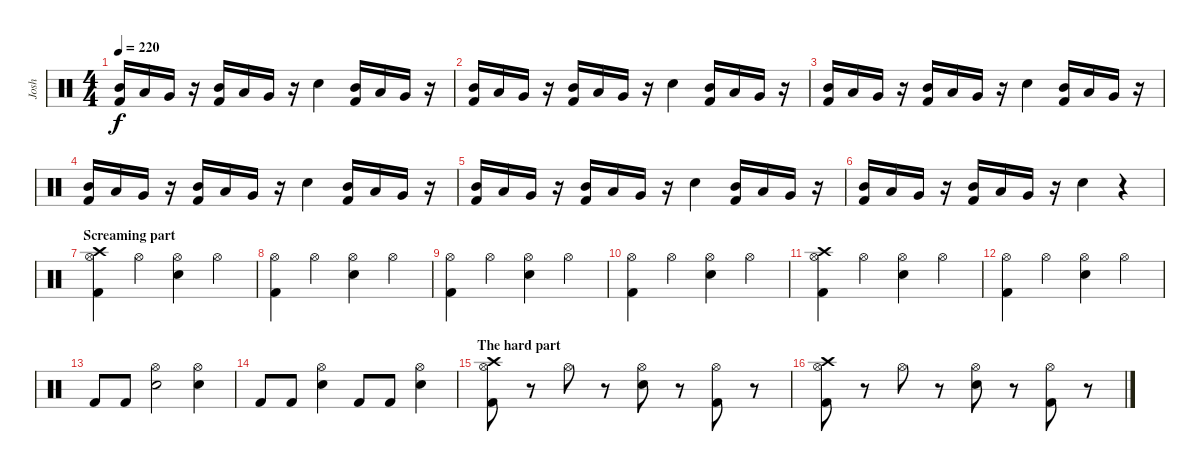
\track ("Josh" "Josh") {instrument percussion}
\staff {score}
\articulation defaults
\ts (4 4)
\tempo 220
\clef neutral
\ks c
("Mid Tom (hit)" "Kick (hit) 2").16{dy f} "Low Tom (hit)".16 "Very Low Tom (hit)".16 r.16 ("Mid Tom (hit)" "Kick (hit) 2").16 "Low Tom (hit)".16 "Very Low Tom (hit)".16 r.16 "Snare (hit) 2".4 ("Mid Tom (hit)" "Kick (hit) 2").16 "Low Tom (hit)".16 "Very Low Tom (hit)".16 r.16 |
("Mid Tom (hit)" "Kick (hit) 2").16 "Low Tom (hit)".16 "Very Low Tom (hit)".16 r.16 ("Mid Tom (hit)" "Kick (hit) 2").16 "Low Tom (hit)".16 "Very Low Tom (hit)".16 r.16 "Snare (hit) 2".4 ("Mid Tom (hit)" "Kick (hit) 2").16 "Low Tom (hit)".16 "Very Low Tom (hit)".16 r.16 |
("Mid Tom (hit)" "Kick (hit) 2").16 "Low Tom (hit)".16 "Very Low Tom (hit)".16 r.16 ("Mid Tom (hit)" "Kick (hit) 2").16 "Low Tom (hit)".16 "Very Low Tom (hit)".16 r.16 "Snare (hit) 2".4 ("Mid Tom (hit)" "Kick (hit) 2").16 "Low Tom (hit)".16 "Very Low Tom (hit)".16 r.16 |
("Mid Tom (hit)" "Kick (hit) 2").16 "Low Tom (hit)".16 "Very Low Tom (hit)".16 r.16 ("Mid Tom (hit)" "Kick (hit) 2").16 "Low Tom (hit)".16 "Very Low Tom (hit)".16 r.16 "Snare (hit) 2".4 ("Mid Tom (hit)" "Kick (hit) 2").16 "Low Tom (hit)".16 "Very Low Tom (hit)".16 r.16 |
("Mid Tom (hit)" "Kick (hit) 2").16 "Low Tom (hit)".16 "Very Low Tom (hit)".16 r.16 ("Mid Tom (hit)" "Kick (hit) 2").16 "Low Tom (hit)".16 "Very Low Tom (hit)".16 r.16 "Snare (hit) 2".4 ("Mid Tom (hit)" "Kick (hit) 2").16 "Low Tom (hit)".16 "Very Low Tom (hit)".16 r.16 |
("Mid Tom (hit)" "Kick (hit) 2").16 "Low Tom (hit)".16 "Very Low Tom (hit)".16 r.16 ("Mid Tom (hit)" "Kick (hit) 2").16 "Low Tom (hit)".16 "Very Low Tom (hit)".16 r.16 "Snare (hit) 2".4 r.4 |
\section ("" "Screaming part")
("Crash high (hit)" "Hi-Hat (open)" "Kick (hit) 2").4 "Hi-Hat (open)".4 ("Hi-Hat (open)" "Snare (hit) 2").4 "Hi-Hat (open)".4 |
("Hi-Hat (open)" "Kick (hit) 2").4 "Hi-Hat (open)".4 ("Hi-Hat (open)" "Snare (hit) 2").4 "Hi-Hat (open)".4 |
("Hi-Hat (open)" "Kick (hit) 2").4 "Hi-Hat (open)".4 ("Hi-Hat (open)" "Snare (hit) 2").4 "Hi-Hat (open)".4 |
("Hi-Hat (open)" "Kick (hit) 2").4 "Hi-Hat (open)".4 ("Hi-Hat (open)" "Snare (hit) 2").4 "Hi-Hat (open)".4 |
("Crash high (hit)" "Hi-Hat (open)" "Kick (hit) 2").4 "Hi-Hat (open)".4 ("Hi-Hat (open)" "Snare (hit) 2").4 "Hi-Hat (open)".4 |
("Hi-Hat (open)" "Kick (hit) 2").4 "Hi-Hat (open)".4 ("Hi-Hat (open)" "Snare (hit) 2").4 "Hi-Hat (open)".4 |
"Kick (hit) 2".8 "Kick (hit) 2".8 ("Hi-Hat (open)" "Snare (hit) 2").2 ("Hi-Hat (open)" "Snare (hit) 2").4 |
"Kick (hit) 2".8 "Kick (hit) 2".8 ("Hi-Hat (open)" "Snare (hit) 2").4 "Kick (hit) 2".8 "Kick (hit) 2".8 ("Hi-Hat (open)" "Snare (hit) 2").4 |
\section ("" "The hard part")
("Crash high (hit)" "Hi-Hat (open)" "Kick (hit) 2").8 r.8 "Hi-Hat (open)".8 r.8 ("Hi-Hat (open)" "Snare (hit) 2").8 r.8 ("Hi-Hat (open)" "Kick (hit) 2").8 r.8 |
("Crash high (hit)" "Hi-Hat (open)" "Kick (hit) 2").8 r.8 "Hi-Hat (open)".8 r.8 ("Hi-Hat (open)" "Snare (hit) 2").8 r.8 ("Hi-Hat (open)" "Kick (hit) 2").8 r.8
